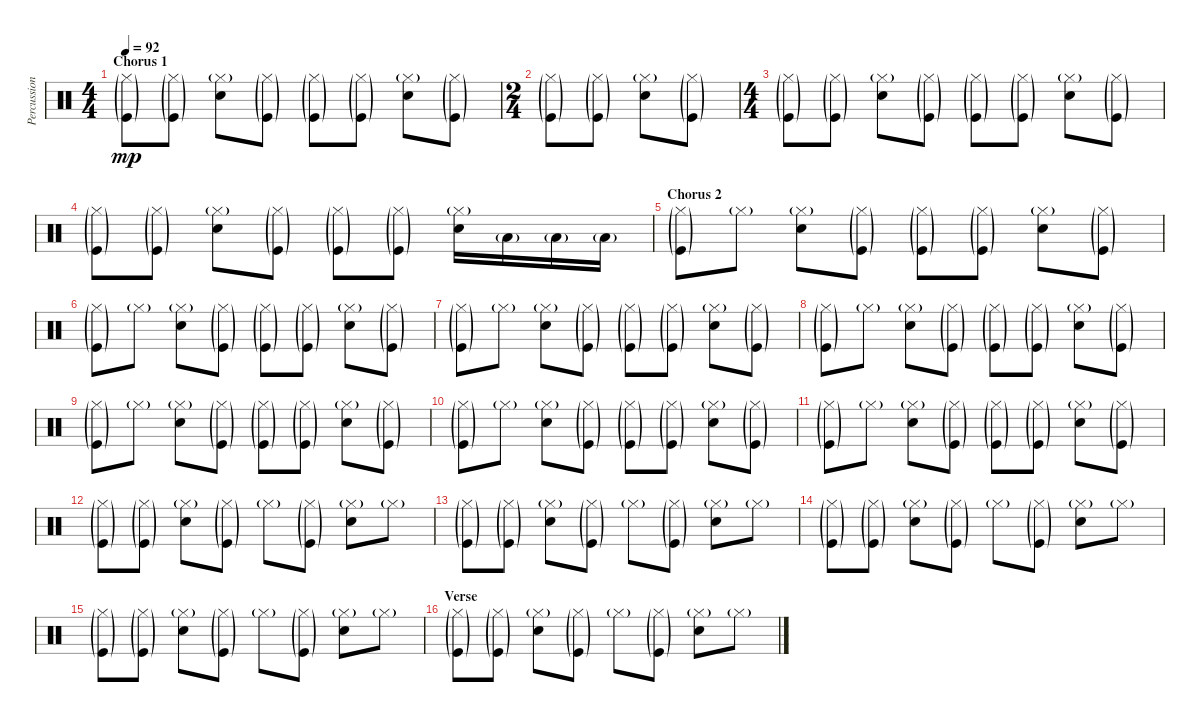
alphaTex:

\track ("Percussions" "Percussion") {instrument percussion}
\staff {score}
\articulation defaults
\ts (4 4)
\section ("" "Chorus 1")
\tempo 92
\clef neutral
\ks c
("Hi-Hat (closed)"{g} "Kick (hit)"{g}).8{dy mp} ("Hi-Hat (closed)"{g} "Kick (hit)"{g}).8 ("Hi-Hat (closed)"{g} "Snare (hit) 2").8 ("Hi-Hat (closed)"{g} "Kick (hit)"{g}).8 ("Hi-Hat (closed)"{g} "Kick (hit)"{g}).8 ("Hi-Hat (closed)"{g} "Kick (hit)"{g}).8 ("Hi-Hat (closed)"{g} "Snare (hit) 2").8 ("Hi-Hat (closed)"{g} "Kick (hit)"{g}).8 |
\ts (2 4)
("Hi-Hat (closed)"{g} "Kick (hit)"{g}).8 ("Hi-Hat (closed)"{g} "Kick (hit)"{g}).8 ("Hi-Hat (closed)"{g} "Snare (hit) 2").8 ("Hi-Hat (closed)"{g} "Kick (hit)"{g}).8 |
\ts (4 4)
("Hi-Hat (closed)"{g} "Kick (hit)"{g}).8 ("Hi-Hat (closed)"{g} "Kick (hit)"{g}).8 ("Hi-Hat (closed)"{g} "Snare (hit) 2").8 ("Hi-Hat (closed)"{g} "Kick (hit)"{g}).8 ("Hi-Hat (closed)"{g} "Kick (hit)"{g}).8 ("Hi-Hat (closed)"{g} "Kick (hit)"{g}).8 ("Hi-Hat (closed)"{g} "Snare (hit) 2").8 ("Hi-Hat (closed)"{g} "Kick (hit)"{g}).8 |
("Hi-Hat (closed)"{g} "Kick (hit)"{g}).8 ("Hi-Hat (closed)"{g} "Kick (hit)"{g}).8 ("Hi-Hat (closed)"{g} "Snare (hit) 2").8 ("Hi-Hat (closed)"{g} "Kick (hit)"{g}).8 ("Hi-Hat (closed)"{g} "Kick (hit)"{g}).8 ("Hi-Hat (closed)"{g} "Kick (hit)"{g}).8 ("Hi-Hat (closed)"{g} "Snare (hit) 2").16 "Low Floor Tom (hit)"{g}.16 "Low Floor Tom (hit)"{g}.16 "Low Floor Tom (hit)"{g}.16 |
\section ("" "Chorus 2")
("Hi-Hat (closed)"{g} "Kick (hit)"{g}).8 "Hi-Hat (closed)"{g}.8 ("Hi-Hat (closed)"{g} "Snare (hit) 2").8 ("Hi-Hat (closed)"{g} "Kick (hit)"{g}).8 ("Hi-Hat (closed)"{g} "Kick (hit)"{g}).8 ("Hi-Hat (closed)"{g} "Kick (hit)"{g}).8 ("Hi-Hat (closed)"{g} "Snare (hit) 2").8 ("Hi-Hat (closed)"{g} "Kick (hit)"{g}).8 |
("Hi-Hat (closed)"{g} "Kick (hit)"{g}).8 "Hi-Hat (closed)"{g}.8 ("Hi-Hat (closed)"{g} "Snare (hit) 2").8 ("Hi-Hat (closed)"{g} "Kick (hit)"{g}).8 ("Hi-Hat (closed)"{g} "Kick (hit)"{g}).8 ("Hi-Hat (closed)"{g} "Kick (hit)"{g}).8 ("Hi-Hat (closed)"{g} "Snare (hit) 2").8 ("Hi-Hat (closed)"{g} "Kick (hit)"{g}).8 |
("Hi-Hat (closed)"{g} "Kick (hit)"{g}).8 "Hi-Hat (closed)"{g}.8 ("Hi-Hat (closed)"{g} "Snare (hit) 2").8 ("Hi-Hat (closed)"{g} "Kick (hit)"{g}).8 ("Hi-Hat (closed)"{g} "Kick (hit)"{g}).8 ("Hi-Hat (closed)"{g} "Kick (hit)"{g}).8 ("Hi-Hat (closed)"{g} "Snare (hit) 2").8 ("Hi-Hat (closed)"{g} "Kick (hit)"{g}).8 |
("Hi-Hat (closed)"{g} "Kick (hit)"{g}).8 "Hi-Hat (closed)"{g}.8 ("Hi-Hat (closed)"{g} "Snare (hit) 2").8 ("Hi-Hat (closed)"{g} "Kick (hit)"{g}).8 ("Hi-Hat (closed)"{g} "Kick (hit)"{g}).8 ("Hi-Hat (closed)"{g} "Kick (hit)"{g}).8 ("Hi-Hat (closed)"{g} "Snare (hit) 2").8 ("Hi-Hat (closed)"{g} "Kick (hit)"{g}).8 |
("Hi-Hat (closed)"{g} "Kick (hit)"{g}).8 "Hi-Hat (closed)"{g}.8 ("Hi-Hat (closed)"{g} "Snare (hit) 2").8 ("Hi-Hat (closed)"{g} "Kick (hit)"{g}).8 ("Hi-Hat (closed)"{g} "Kick (hit)"{g}).8 ("Hi-Hat (closed)"{g} "Kick (hit)"{g}).8 ("Hi-Hat (closed)"{g} "Snare (hit) 2").8 ("Hi-Hat (closed)"{g} "Kick (hit)"{g}).8 |
("Hi-Hat (closed)"{g} "Kick (hit)"{g}).8 "Hi-Hat (closed)"{g}.8 ("Hi-Hat (closed)"{g} "Snare (hit) 2").8 ("Hi-Hat (closed)"{g} "Kick (hit)"{g}).8 ("Hi-Hat (closed)"{g} "Kick (hit)"{g}).8 ("Hi-Hat (closed)"{g} "Kick (hit)"{g}).8 ("Hi-Hat (closed)"{g} "Snare (hit) 2").8 ("Hi-Hat (closed)"{g} "Kick (hit)"{g}).8 |
("Hi-Hat (closed)"{g} "Kick (hit)"{g}).8 "Hi-Hat (closed)"{g}.8 ("Hi-Hat (closed)"{g} "Snare (hit) 2").8 ("Hi-Hat (closed)"{g} "Kick (hit)"{g}).8 ("Hi-Hat (closed)"{g} "Kick (hit)"{g}).8 ("Hi-Hat (closed)"{g} "Kick (hit)"{g}).8 ("Hi-Hat (closed)"{g} "Snare (hit) 2").8 ("Hi-Hat (closed)"{g} "Kick (hit)"{g}).8 |
\section ("" "")
("Hi-Hat (closed)"{g} "Kick (hit)"{g}).8 ("Hi-Hat (closed)"{g} "Kick (hit)"{g}).8 ("Hi-Hat (closed)"{g} "Snare (hit) 2").8 ("Hi-Hat (closed)"{g} "Kick (hit)"{g}).8 "Hi-Hat (closed)"{g}.8 ("Hi-Hat (closed)"{g} "Kick (hit)"{g}).8 ("Hi-Hat (closed)"{g} "Snare (hit) 2").8 "Hi-Hat (closed)"{g}.8 |
("Hi-Hat (closed)"{g} "Kick (hit)"{g}).8 ("Hi-Hat (closed)"{g} "Kick (hit)"{g}).8 ("Hi-Hat (closed)"{g} "Snare (hit) 2").8 ("Hi-Hat (closed)"{g} "Kick (hit)"{g}).8 "Hi-Hat (closed)"{g}.8 ("Hi-Hat (closed)"{g} "Kick (hit)"{g}).8 ("Hi-Hat (closed)"{g} "Snare (hit) 2").8 "Hi-Hat (closed)"{g}.8 |
("Hi-Hat (closed)"{g} "Kick (hit)"{g}).8 ("Hi-Hat (closed)"{g} "Kick (hit)"{g}).8 ("Hi-Hat (closed)"{g} "Snare (hit) 2").8 ("Hi-Hat (closed)"{g} "Kick (hit)"{g}).8 "Hi-Hat (closed)"{g}.8 ("Hi-Hat (closed)"{g} "Kick (hit)"{g}).8 ("Hi-Hat (closed)"{g} "Snare (hit) 2").8 "Hi-Hat (closed)"{g}.8 |
("Hi-Hat (closed)"{g} "Kick (hit)"{g}).8 ("Hi-Hat (closed)"{g} "Kick (hit)"{g}).8 ("Hi-Hat (closed)"{g} "Snare (hit) 2").8 ("Hi-Hat (closed)"{g} "Kick (hit)"{g}).8 "Hi-Hat (closed)"{g}.8 ("Hi-Hat (closed)"{g} "Kick (hit)"{g}).8 ("Hi-Hat (closed)"{g} "Snare (hit) 2").8 "Hi-Hat (closed)"{g}.8 |
\section ("" "Verse")
("Hi-Hat (closed)"{g} "Kick (hit)"{g}).8 ("Hi-Hat (closed)"{g} "Kick (hit)"{g}).8 ("Hi-Hat (closed)"{g} "Snare (hit) 2").8 ("Hi-Hat (closed)"{g} "Kick (hit)"{g}).8 "Hi-Hat (closed)"{g}.8 ("Hi-Hat (closed)"{g} "Kick (hit)"{g}).8 ("Hi-Hat (closed)"{g} "Snare (hit) 2").8 "Hi-Hat (closed)"{g}.8
